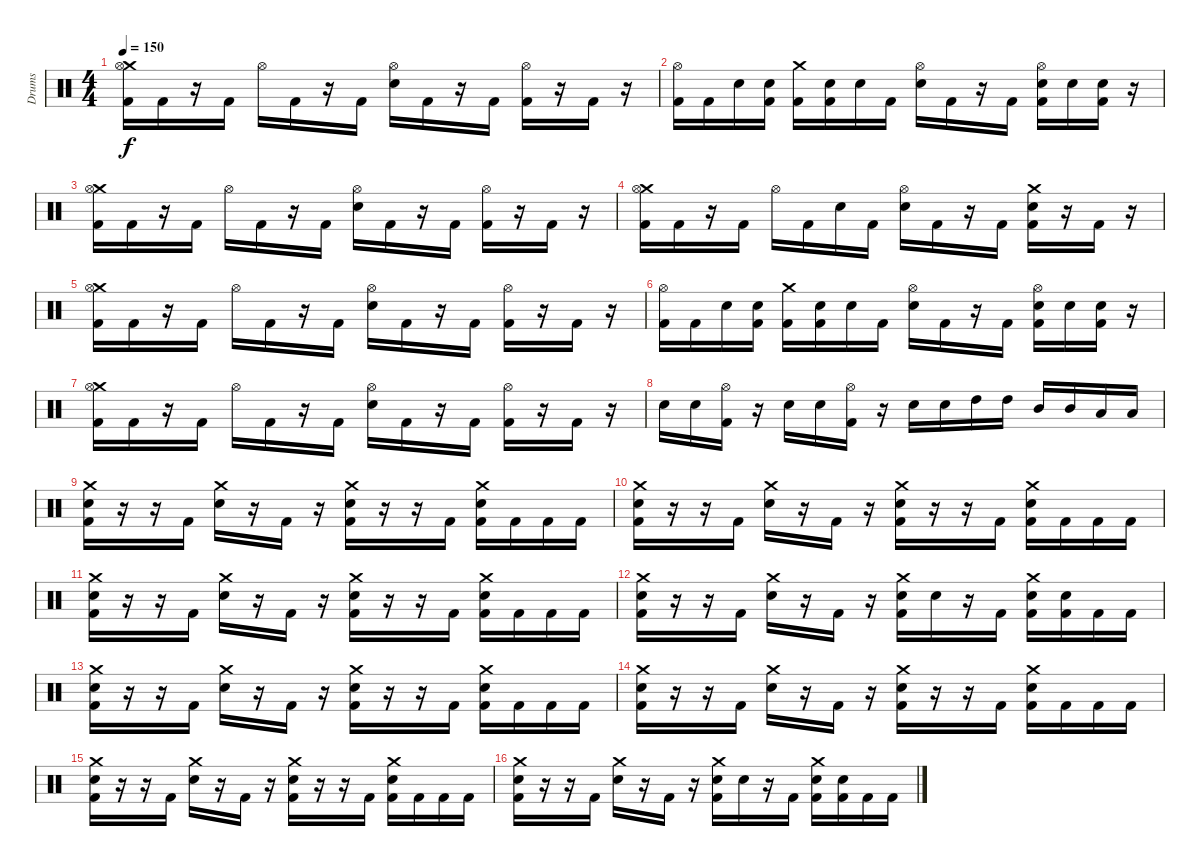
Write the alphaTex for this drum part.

\track ("Drums" "Drums") {instrument percussion}
\staff {score}
\articulation defaults
\ts (4 4)
\tempo 150
\clef neutral
\ks c
("Crash medium (hit)" "Hi-Hat (open)" "Kick (hit) 2").16{dy f} "Kick (hit) 2".16 r.16 "Kick (hit) 2".16 "Hi-Hat (open)".16 "Kick (hit) 2".16 r.16 "Kick (hit) 2".16 ("Hi-Hat (open)" "Electric Snare (hit)").16 "Kick (hit) 2".16 r.16 "Kick (hit) 2".16 ("Hi-Hat (open)" "Kick (hit) 2").16 r.16 "Kick (hit) 2".16 r.16 |
("Hi-Hat (open)" "Kick (hit) 2").16 "Kick (hit) 2".16 "Electric Snare (hit)".16 ("Electric Snare (hit)" "Kick (hit) 2").16 ("Crash medium (hit)" "Kick (hit) 2").16 ("Electric Snare (hit)" "Kick (hit) 2").16 "Electric Snare (hit)".16 "Kick (hit) 2".16 ("Hi-Hat (open)" "Electric Snare (hit)").16 "Kick (hit) 2".16 r.16 "Kick (hit) 2".16 ("Hi-Hat (open)" "Electric Snare (hit)" "Kick (hit) 2").16 "Electric Snare (hit)".16 ("Electric Snare (hit)" "Kick (hit) 2").16 r.16 |
("Crash medium (hit)" "Hi-Hat (open)" "Kick (hit) 2").16 "Kick (hit) 2".16 r.16 "Kick (hit) 2".16 "Hi-Hat (open)".16 "Kick (hit) 2".16 r.16 "Kick (hit) 2".16 ("Hi-Hat (open)" "Electric Snare (hit)").16 "Kick (hit) 2".16 r.16 "Kick (hit) 2".16 ("Hi-Hat (open)" "Kick (hit) 2").16 r.16 "Kick (hit) 2".16 r.16 |
("Crash medium (hit)" "Hi-Hat (open)" "Kick (hit) 2").16 "Kick (hit) 2".16 r.16 "Kick (hit) 2".16 "Hi-Hat (open)".16 "Kick (hit) 2".16 "Electric Snare (hit)".16 "Kick (hit) 2".16 ("Hi-Hat (open)" "Electric Snare (hit)").16 "Kick (hit) 2".16 r.16 "Kick (hit) 2".16 ("Crash medium (hit)" "Electric Snare (hit)" "Kick (hit) 2").16 r.16 "Kick (hit) 2".16 r.16 |
("Crash medium (hit)" "Hi-Hat (open)" "Kick (hit) 2").16 "Kick (hit) 2".16 r.16 "Kick (hit) 2".16 "Hi-Hat (open)".16 "Kick (hit) 2".16 r.16 "Kick (hit) 2".16 ("Hi-Hat (open)" "Electric Snare (hit)").16 "Kick (hit) 2".16 r.16 "Kick (hit) 2".16 ("Hi-Hat (open)" "Kick (hit) 2").16 r.16 "Kick (hit) 2".16 r.16 |
("Hi-Hat (open)" "Kick (hit) 2").16 "Kick (hit) 2".16 "Electric Snare (hit)".16 ("Electric Snare (hit)" "Kick (hit) 2").16 ("Crash medium (hit)" "Kick (hit) 2").16 ("Electric Snare (hit)" "Kick (hit) 2").16 "Electric Snare (hit)".16 "Kick (hit) 2".16 ("Hi-Hat (open)" "Electric Snare (hit)").16 "Kick (hit) 2".16 r.16 "Kick (hit) 2".16 ("Hi-Hat (open)" "Electric Snare (hit)" "Kick (hit) 2").16 "Electric Snare (hit)".16 ("Electric Snare (hit)" "Kick (hit) 2").16 r.16 |
("Crash medium (hit)" "Hi-Hat (open)" "Kick (hit) 2").16 "Kick (hit) 2".16 r.16 "Kick (hit) 2".16 "Hi-Hat (open)".16 "Kick (hit) 2".16 r.16 "Kick (hit) 2".16 ("Hi-Hat (open)" "Electric Snare (hit)").16 "Kick (hit) 2".16 r.16 "Kick (hit) 2".16 ("Hi-Hat (open)" "Kick (hit) 2").16 r.16 "Kick (hit) 2".16 r.16 |
"Electric Snare (hit)".16 "Electric Snare (hit)".16 ("Hi-Hat (open)" "Kick (hit) 2").16 r.16 "Electric Snare (hit)".16 "Electric Snare (hit)".16 ("Hi-Hat (open)" "Kick (hit) 2").16 r.16 "Electric Snare (hit)".16 "Electric Snare (hit)".16 "High Tom (hit)".16 "High Tom (hit)".16 "Mid Tom (hit)".16 "Mid Tom (hit)".16 "Low Tom (hit)".16 "Low Tom (hit)".16 |
("Crash medium (hit)" "Electric Snare (hit)" "Kick (hit) 2").16 r.16 r.16 "Kick (hit) 2".16 ("Crash medium (hit)" "Electric Snare (hit)").16 r.16 "Kick (hit) 2".16 r.16 ("Crash medium (hit)" "Electric Snare (hit)" "Kick (hit) 2").16 r.16 r.16 "Kick (hit) 2".16 ("Crash medium (hit)" "Electric Snare (hit)" "Kick (hit) 2").16 "Kick (hit) 2".16 "Kick (hit) 2".16 "Kick (hit) 2".16 |
("Crash medium (hit)" "Electric Snare (hit)" "Kick (hit) 2").16 r.16 r.16 "Kick (hit) 2".16 ("Crash medium (hit)" "Electric Snare (hit)").16 r.16 "Kick (hit) 2".16 r.16 ("Crash medium (hit)" "Electric Snare (hit)" "Kick (hit) 2").16 r.16 r.16 "Kick (hit) 2".16 ("Crash medium (hit)" "Electric Snare (hit)" "Kick (hit) 2").16 "Kick (hit) 2".16 "Kick (hit) 2".16 "Kick (hit) 2".16 |
("Crash medium (hit)" "Electric Snare (hit)" "Kick (hit) 2").16 r.16 r.16 "Kick (hit) 2".16 ("Crash medium (hit)" "Electric Snare (hit)").16 r.16 "Kick (hit) 2".16 r.16 ("Crash medium (hit)" "Electric Snare (hit)" "Kick (hit) 2").16 r.16 r.16 "Kick (hit) 2".16 ("Crash medium (hit)" "Electric Snare (hit)" "Kick (hit) 2").16 "Kick (hit) 2".16 "Kick (hit) 2".16 "Kick (hit) 2".16 |
("Crash medium (hit)" "Electric Snare (hit)" "Kick (hit) 2").16 r.16 r.16 "Kick (hit) 2".16 ("Crash medium (hit)" "Electric Snare (hit)").16 r.16 "Kick (hit) 2".16 r.16 ("Crash medium (hit)" "Electric Snare (hit)" "Kick (hit) 2").16 "Electric Snare (hit)".16 r.16 "Kick (hit) 2".16 ("Crash medium (hit)" "Electric Snare (hit)" "Kick (hit) 2").16 ("Electric Snare (hit)" "Kick (hit) 2").16 "Kick (hit) 2".16 "Kick (hit) 2".16 |
("Crash medium (hit)" "Electric Snare (hit)" "Kick (hit) 2").16 r.16 r.16 "Kick (hit) 2".16 ("Crash medium (hit)" "Electric Snare (hit)").16 r.16 "Kick (hit) 2".16 r.16 ("Crash medium (hit)" "Electric Snare (hit)" "Kick (hit) 2").16 r.16 r.16 "Kick (hit) 2".16 ("Crash medium (hit)" "Electric Snare (hit)" "Kick (hit) 2").16 "Kick (hit) 2".16 "Kick (hit) 2".16 "Kick (hit) 2".16 |
("Crash medium (hit)" "Electric Snare (hit)" "Kick (hit) 2").16 r.16 r.16 "Kick (hit) 2".16 ("Crash medium (hit)" "Electric Snare (hit)").16 r.16 "Kick (hit) 2".16 r.16 ("Crash medium (hit)" "Electric Snare (hit)" "Kick (hit) 2").16 r.16 r.16 "Kick (hit) 2".16 ("Crash medium (hit)" "Electric Snare (hit)" "Kick (hit) 2").16 "Kick (hit) 2".16 "Kick (hit) 2".16 "Kick (hit) 2".16 |
("Crash medium (hit)" "Electric Snare (hit)" "Kick (hit) 2").16 r.16 r.16 "Kick (hit) 2".16 ("Crash medium (hit)" "Electric Snare (hit)").16 r.16 "Kick (hit) 2".16 r.16 ("Crash medium (hit)" "Electric Snare (hit)" "Kick (hit) 2").16 r.16 r.16 "Kick (hit) 2".16 ("Crash medium (hit)" "Electric Snare (hit)" "Kick (hit) 2").16 "Kick (hit) 2".16 "Kick (hit) 2".16 "Kick (hit) 2".16 |
("Crash medium (hit)" "Electric Snare (hit)" "Kick (hit) 2").16 r.16 r.16 "Kick (hit) 2".16 ("Crash medium (hit)" "Electric Snare (hit)").16 r.16 "Kick (hit) 2".16 r.16 ("Crash medium (hit)" "Electric Snare (hit)" "Kick (hit) 2").16 "Electric Snare (hit)".16 r.16 "Kick (hit) 2".16 ("Crash medium (hit)" "Electric Snare (hit)" "Kick (hit) 2").16 ("Electric Snare (hit)" "Kick (hit) 2").16 "Kick (hit) 2".16 "Kick (hit) 2".16
